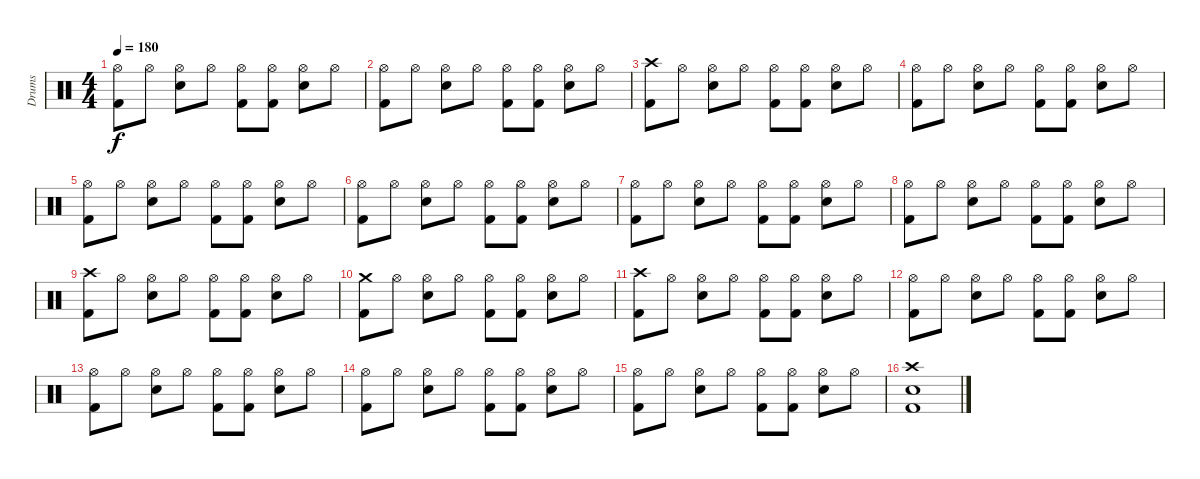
\track ("Drums" "Drums") {instrument percussion}
\staff {score}
\articulation defaults
\ts (4 4)
\tempo 180
\clef neutral
\ks c
("Hi-Hat (open)" "Kick (hit) 2").8{dy f} "Hi-Hat (open)".8 ("Hi-Hat (open)" "Snare (hit) 2").8 "Hi-Hat (open)".8 ("Hi-Hat (open)" "Kick (hit) 2").8 ("Hi-Hat (open)" "Kick (hit) 2").8 ("Hi-Hat (open)" "Snare (hit) 2").8 "Hi-Hat (open)".8 |
("Hi-Hat (open)" "Kick (hit) 2").8 "Hi-Hat (open)".8 ("Hi-Hat (open)" "Snare (hit) 2").8 "Hi-Hat (open)".8 ("Hi-Hat (open)" "Kick (hit) 2").8 ("Hi-Hat (open)" "Kick (hit) 2").8 ("Hi-Hat (open)" "Snare (hit) 2").8 "Hi-Hat (open)".8 |
("Crash high (hit)" "Kick (hit) 2").8 "Hi-Hat (open)".8 ("Hi-Hat (open)" "Snare (hit) 2").8 "Hi-Hat (open)".8 ("Hi-Hat (open)" "Kick (hit) 2").8 ("Hi-Hat (open)" "Kick (hit) 2").8 ("Hi-Hat (open)" "Snare (hit) 2").8 "Hi-Hat (open)".8 |
("Hi-Hat (open)" "Kick (hit) 2").8 "Hi-Hat (open)".8 ("Hi-Hat (open)" "Snare (hit) 2").8 "Hi-Hat (open)".8 ("Hi-Hat (open)" "Kick (hit) 2").8 ("Hi-Hat (open)" "Kick (hit) 2").8 ("Hi-Hat (open)" "Snare (hit) 2").8 "Hi-Hat (open)".8 |
("Hi-Hat (open)" "Kick (hit) 2").8 "Hi-Hat (open)".8 ("Hi-Hat (open)" "Snare (hit) 2").8 "Hi-Hat (open)".8 ("Hi-Hat (open)" "Kick (hit) 2").8 ("Hi-Hat (open)" "Kick (hit) 2").8 ("Hi-Hat (open)" "Snare (hit) 2").8 "Hi-Hat (open)".8 |
("Hi-Hat (open)" "Kick (hit) 2").8 "Hi-Hat (open)".8 ("Hi-Hat (open)" "Snare (hit) 2").8 "Hi-Hat (open)".8 ("Hi-Hat (open)" "Kick (hit) 2").8 ("Hi-Hat (open)" "Kick (hit) 2").8 ("Hi-Hat (open)" "Snare (hit) 2").8 "Hi-Hat (open)".8 |
("Hi-Hat (open)" "Kick (hit) 2").8 "Hi-Hat (open)".8 ("Hi-Hat (open)" "Snare (hit) 2").8 "Hi-Hat (open)".8 ("Hi-Hat (open)" "Kick (hit) 2").8 ("Hi-Hat (open)" "Kick (hit) 2").8 ("Hi-Hat (open)" "Snare (hit) 2").8 "Hi-Hat (open)".8 |
("Hi-Hat (open)" "Kick (hit) 2").8 "Hi-Hat (open)".8 ("Hi-Hat (open)" "Snare (hit) 2").8 "Hi-Hat (open)".8 ("Hi-Hat (open)" "Kick (hit) 2").8 ("Hi-Hat (open)" "Kick (hit) 2").8 ("Hi-Hat (open)" "Snare (hit) 2").8 "Hi-Hat (open)".8 |
("Crash high (hit)" "Kick (hit) 2").8 "Hi-Hat (open)".8 ("Hi-Hat (open)" "Snare (hit) 2").8 "Hi-Hat (open)".8 ("Hi-Hat (open)" "Kick (hit) 2").8 ("Hi-Hat (open)" "Kick (hit) 2").8 ("Hi-Hat (open)" "Snare (hit) 2").8 "Hi-Hat (open)".8 |
("Crash medium (hit)" "Kick (hit) 2").8 "Hi-Hat (open)".8 ("Hi-Hat (open)" "Snare (hit) 2").8 "Hi-Hat (open)".8 ("Hi-Hat (open)" "Kick (hit) 2").8 ("Hi-Hat (open)" "Kick (hit) 2").8 ("Hi-Hat (open)" "Snare (hit) 2").8 "Hi-Hat (open)".8 |
("Crash high (hit)" "Kick (hit) 2").8 "Hi-Hat (open)".8 ("Hi-Hat (open)" "Snare (hit) 2").8 "Hi-Hat (open)".8 ("Hi-Hat (open)" "Kick (hit) 2").8 ("Hi-Hat (open)" "Kick (hit) 2").8 ("Hi-Hat (open)" "Snare (hit) 2").8 "Hi-Hat (open)".8 |
("Hi-Hat (open)" "Kick (hit) 2").8 "Hi-Hat (open)".8 ("Hi-Hat (open)" "Snare (hit) 2").8 "Hi-Hat (open)".8 ("Hi-Hat (open)" "Kick (hit) 2").8 ("Hi-Hat (open)" "Kick (hit) 2").8 ("Hi-Hat (open)" "Snare (hit) 2").8 "Hi-Hat (open)".8 |
("Hi-Hat (open)" "Kick (hit) 2").8 "Hi-Hat (open)".8 ("Hi-Hat (open)" "Snare (hit) 2").8 "Hi-Hat (open)".8 ("Hi-Hat (open)" "Kick (hit) 2").8 ("Hi-Hat (open)" "Kick (hit) 2").8 ("Hi-Hat (open)" "Snare (hit) 2").8 "Hi-Hat (open)".8 |
("Hi-Hat (open)" "Kick (hit) 2").8 "Hi-Hat (open)".8 ("Hi-Hat (open)" "Snare (hit) 2").8 "Hi-Hat (open)".8 ("Hi-Hat (open)" "Kick (hit) 2").8 ("Hi-Hat (open)" "Kick (hit) 2").8 ("Hi-Hat (open)" "Snare (hit) 2").8 "Hi-Hat (open)".8 |
("Hi-Hat (open)" "Kick (hit) 2").8 "Hi-Hat (open)".8 ("Hi-Hat (open)" "Snare (hit) 2").8 "Hi-Hat (open)".8 ("Hi-Hat (open)" "Kick (hit) 2").8 ("Hi-Hat (open)" "Kick (hit) 2").8 ("Hi-Hat (open)" "Snare (hit) 2").8 "Hi-Hat (open)".8 |
("Crash high (hit)" "Snare (hit) 2" "Kick (hit) 2").1
